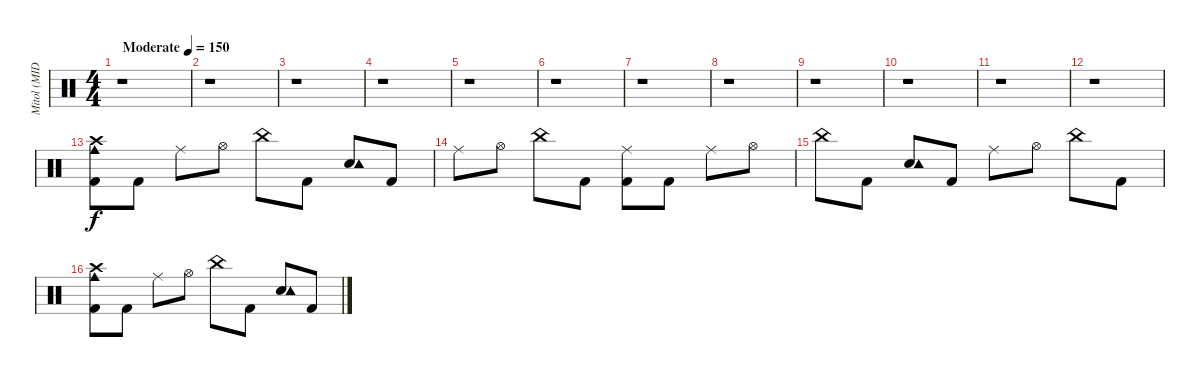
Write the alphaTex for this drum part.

\track ("Mitol (MIDI)" "Mitol (MID") {instrument percussion}
\staff {score}
\articulation defaults
\ts (4 4)
\tempo (150 "Moderate")
\clef neutral
\ks c
r.1{dy f} |
r.1 |
r.1 |
r.1 |
r.1 |
r.1 |
r.1 |
r.1 |
r.1 |
r.1 |
r.1 |
r.1 |
("Crash high (hit)" "Kick (hit) 2" "Cowbell medium (hit)").8 "Kick (hit) 2".8 "Ride (middle)".8 "Hi-Hat (open)".8 "China (hit)".8 "Kick (hit) 2".8 ("Electric Snare (hit)" "Tambourine (hit)").8 "Kick (hit) 2".8 |
"Ride (middle)".8 "Hi-Hat (open)".8 "China (hit)".8 "Kick (hit) 2".8 ("Ride (middle)" "Kick (hit) 2").8 "Kick (hit) 2".8 "Ride (middle)".8 "Hi-Hat (open)".8 |
"China (hit)".8 "Kick (hit) 2".8 ("Electric Snare (hit)" "Tambourine (hit)").8 "Kick (hit) 2".8 "Ride (middle)".8 "Hi-Hat (open)".8 "China (hit)".8 "Kick (hit) 2".8 |
("Cowbell medium (hit)" "Kick (hit) 2" "Crash high (hit)").8 "Kick (hit) 2".8 "Ride (middle)".8 "Hi-Hat (open)".8 "China (hit)".8 "Kick (hit) 2".8 ("Electric Snare (hit)" "Tambourine (hit)").8 "Kick (hit) 2".8
